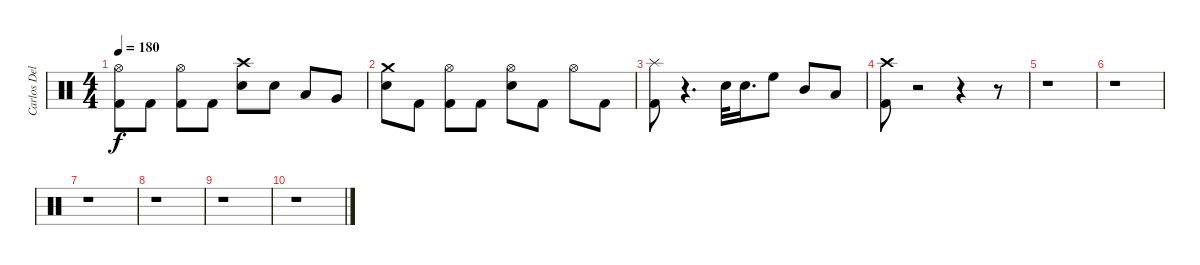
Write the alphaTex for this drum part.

\track ("Carlos Delgado" "Carlos Del") {instrument percussion}
\staff {score}
\articulation defaults
\ts (4 4)
\tempo 180
\clef neutral
\ks c
("Kick (hit) 2" "Hi-Hat (open)").8{dy f} "Kick (hit) 2".8 ("Hi-Hat (open)" "Kick (hit) 2").8 "Kick (hit) 2".8 ("Crash high (hit)" "Electric Snare (hit)").8 "Electric Snare (hit)".8 "Low Tom (hit)".8 "Very Low Tom (hit)".8 |
("Crash medium (hit)" "Electric Snare (hit)").8 "Kick (hit) 2".8 ("Hi-Hat (open)" "Kick (hit) 2").8 "Kick (hit) 2".8 ("Hi-Hat (open)" "Electric Snare (hit)").8 "Kick (hit) 2".8 "Hi-Hat (open)".8 "Kick (hit) 2".8 |
("Splash (hit)" "Kick (hit) 2").8 r.4{d} "Electric Snare (hit)".32 "Electric Snare (hit)".16{d} "High Floor Tom (hit)".8 "Mid Tom (hit)".8 "Low Tom (hit)".8 |
("Crash high (hit)" "Kick (hit) 2").8 r.2 r.4 r.8 |
r.1 |
r.1 |
r.1 |
r.1 |
r.1 |
r.1
